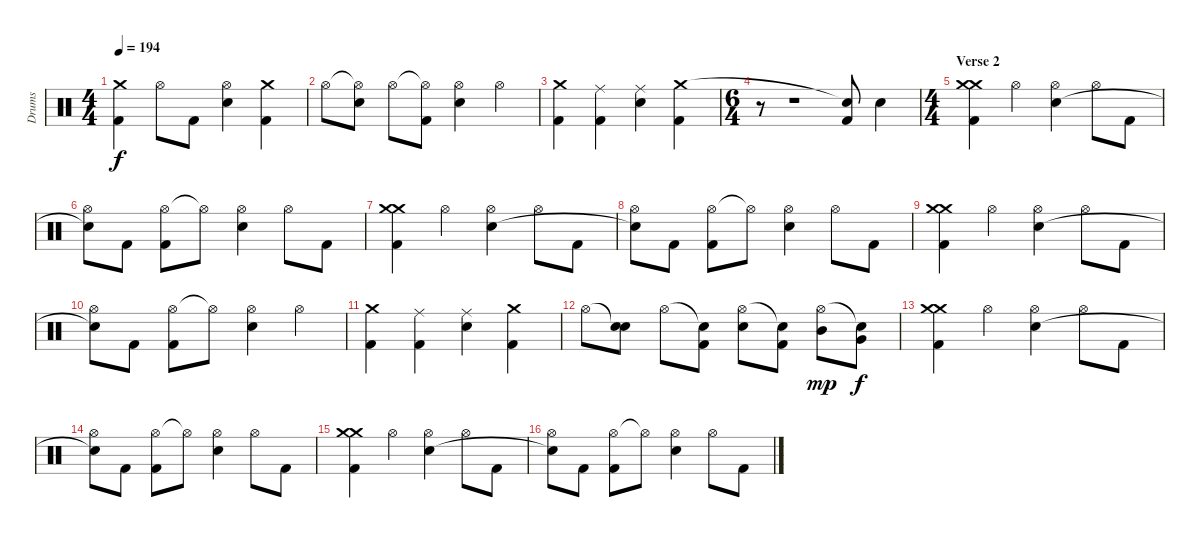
\track ("Drums" "Drums") {instrument percussion}
\staff {score}
\articulation defaults
\ts (4 4)
\tempo 194
\clef neutral
\ks c
("Crash medium (hit)" "Kick (hit) 2").4{dy f} "Hi-Hat (open)".8 "Kick (hit) 2".8 ("Hi-Hat (open)" "Snare (hit) 2").4 ("Crash medium (hit)" "Kick (hit) 2").4 |
"Hi-Hat (open)".8 ("Hi-Hat (open)"{t} "Snare (hit) 2").8 "Hi-Hat (open)".8 ("Hi-Hat (open)"{t} "Kick (hit) 2").8 ("Hi-Hat (open)" "Snare (hit) 2").4 "Hi-Hat (open)".4 |
("Crash medium (hit)" "Kick (hit) 2").4 ("Ride (middle)" "Kick (hit) 2").4 ("Ride (middle)" "Snare (hit) 2").4 ("Crash medium (hit)" "Kick (hit) 2").4 |
\ts (6 4)
r.8 r.1 ("Snare (hit)"{t} "Kick (hit) 2").8 "Snare (hit) 2".4 |
\ts (4 4)
\section ("" "Verse 2")
("Crash medium (hit)" "Crash medium (hit)" "Kick (hit) 2").4 "Hi-Hat (open)".4 ("Hi-Hat (open)" "Snare (hit) 2").4 "Hi-Hat (open)".8 "Kick (hit) 2".8 |
("Hi-Hat (open)" "Snare (hit)"{t}).8 "Kick (hit) 2".8 ("Hi-Hat (open)" "Kick (hit) 2").8 "Hi-Hat (open)"{t}.8 ("Hi-Hat (open)" "Snare (hit) 2").4 "Hi-Hat (open)".8 "Kick (hit) 2".8 |
("Crash medium (hit)" "Crash medium (hit)" "Kick (hit) 2").4 "Hi-Hat (open)".4 ("Hi-Hat (open)" "Snare (hit) 2").4 "Hi-Hat (open)".8 "Kick (hit) 2".8 |
("Hi-Hat (open)" "Snare (hit)"{t}).8 "Kick (hit) 2".8 ("Hi-Hat (open)" "Kick (hit) 2").8 "Hi-Hat (open)"{t}.8 ("Hi-Hat (open)" "Snare (hit) 2").4 "Hi-Hat (open)".8 "Kick (hit) 2".8 |
("Crash medium (hit)" "Crash medium (hit)" "Kick (hit) 2").4 "Hi-Hat (open)".4 ("Hi-Hat (open)" "Snare (hit) 2").4 "Hi-Hat (open)".8 "Kick (hit) 2".8 |
("Hi-Hat (open)" "Snare (hit)"{t}).8 "Kick (hit) 2".8 ("Hi-Hat (open)" "Kick (hit) 2").8 "Hi-Hat (open)"{t}.8 ("Hi-Hat (open)" "Snare (hit) 2").4 "Hi-Hat (open)".4 |
("Crash medium (hit)" "Kick (hit) 2").4 ("Ride (middle)" "Kick (hit) 2").4 ("Ride (middle)" "Snare (hit) 2").4 ("Crash medium (hit)" "Kick (hit) 2").4 |
"Hi-Hat (open)".8 ("Snare (hit)"{t} "Snare (hit) 2").8 "Hi-Hat (open)".8 ("Snare (hit)"{t} "Kick (hit) 2").8 ("Hi-Hat (open)" "Snare (hit) 2").8 ("Snare (hit)"{t} "Kick (hit) 2").8 ("Hi-Hat (open)" "Mid Tom (hit)").8{dy mp} ("Snare (hit)"{t} "Very Low Tom (hit)").8{dy f} |
("Crash medium (hit)" "Crash medium (hit)" "Kick (hit) 2").4 "Hi-Hat (open)".4 ("Hi-Hat (open)" "Snare (hit) 2").4 "Hi-Hat (open)".8 "Kick (hit) 2".8 |
("Hi-Hat (open)" "Snare (hit)"{t}).8 "Kick (hit) 2".8 ("Hi-Hat (open)" "Kick (hit) 2").8 "Hi-Hat (open)"{t}.8 ("Hi-Hat (open)" "Snare (hit) 2").4 "Hi-Hat (open)".8 "Kick (hit) 2".8 |
("Crash medium (hit)" "Crash medium (hit)" "Kick (hit) 2").4 "Hi-Hat (open)".4 ("Hi-Hat (open)" "Snare (hit) 2").4 "Hi-Hat (open)".8 "Kick (hit) 2".8 |
("Hi-Hat (open)" "Snare (hit)"{t}).8 "Kick (hit) 2".8 ("Hi-Hat (open)" "Kick (hit) 2").8 "Hi-Hat (open)"{t}.8 ("Hi-Hat (open)" "Snare (hit) 2").4 "Hi-Hat (open)".8 "Kick (hit) 2".8
